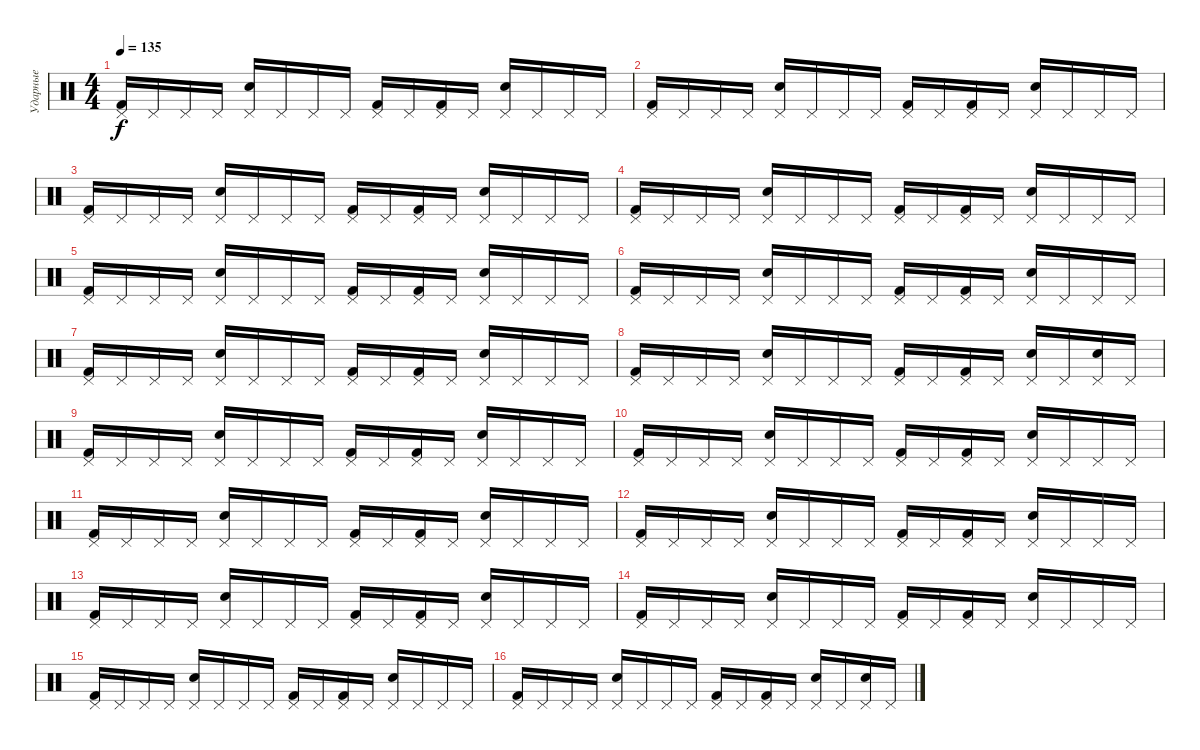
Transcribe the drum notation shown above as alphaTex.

\track ("Ударные" "Ударные") {instrument percussion}
\staff {score}
\articulation defaults
\ts (4 4)
\tempo 135
\clef neutral
\ks c
("Pedal Hi-Hat (hit)" "Kick (hit) 2").16{dy f} "Pedal Hi-Hat (hit)".16 "Pedal Hi-Hat (hit)".16 "Pedal Hi-Hat (hit)".16 ("Pedal Hi-Hat (hit)" "Snare (hit) 2").16 "Pedal Hi-Hat (hit)".16 "Pedal Hi-Hat (hit)".16 "Pedal Hi-Hat (hit)".16 ("Pedal Hi-Hat (hit)" "Kick (hit) 2").16 "Pedal Hi-Hat (hit)".16 ("Pedal Hi-Hat (hit)" "Kick (hit) 2").16 "Pedal Hi-Hat (hit)".16 ("Pedal Hi-Hat (hit)" "Snare (hit) 2").16 "Pedal Hi-Hat (hit)".16 "Pedal Hi-Hat (hit)".16 "Pedal Hi-Hat (hit)".16 |
("Pedal Hi-Hat (hit)" "Kick (hit) 2").16 "Pedal Hi-Hat (hit)".16 "Pedal Hi-Hat (hit)".16 "Pedal Hi-Hat (hit)".16 ("Pedal Hi-Hat (hit)" "Snare (hit) 2").16 "Pedal Hi-Hat (hit)".16 "Pedal Hi-Hat (hit)".16 "Pedal Hi-Hat (hit)".16 ("Pedal Hi-Hat (hit)" "Kick (hit) 2").16 "Pedal Hi-Hat (hit)".16 ("Pedal Hi-Hat (hit)" "Kick (hit) 2").16 "Pedal Hi-Hat (hit)".16 ("Pedal Hi-Hat (hit)" "Snare (hit) 2").16 "Pedal Hi-Hat (hit)".16 "Pedal Hi-Hat (hit)".16 "Pedal Hi-Hat (hit)".16 |
("Pedal Hi-Hat (hit)" "Kick (hit) 2").16 "Pedal Hi-Hat (hit)".16 "Pedal Hi-Hat (hit)".16 "Pedal Hi-Hat (hit)".16 ("Pedal Hi-Hat (hit)" "Snare (hit) 2").16 "Pedal Hi-Hat (hit)".16 "Pedal Hi-Hat (hit)".16 "Pedal Hi-Hat (hit)".16 ("Pedal Hi-Hat (hit)" "Kick (hit) 2").16 "Pedal Hi-Hat (hit)".16 ("Pedal Hi-Hat (hit)" "Kick (hit) 2").16 "Pedal Hi-Hat (hit)".16 ("Pedal Hi-Hat (hit)" "Snare (hit) 2").16 "Pedal Hi-Hat (hit)".16 "Pedal Hi-Hat (hit)".16 "Pedal Hi-Hat (hit)".16 |
("Pedal Hi-Hat (hit)" "Kick (hit) 2").16 "Pedal Hi-Hat (hit)".16 "Pedal Hi-Hat (hit)".16 "Pedal Hi-Hat (hit)".16 ("Pedal Hi-Hat (hit)" "Snare (hit) 2").16 "Pedal Hi-Hat (hit)".16 "Pedal Hi-Hat (hit)".16 "Pedal Hi-Hat (hit)".16 ("Pedal Hi-Hat (hit)" "Kick (hit) 2").16 "Pedal Hi-Hat (hit)".16 ("Pedal Hi-Hat (hit)" "Kick (hit) 2").16 "Pedal Hi-Hat (hit)".16 ("Pedal Hi-Hat (hit)" "Snare (hit) 2").16 "Pedal Hi-Hat (hit)".16 "Pedal Hi-Hat (hit)".16 "Pedal Hi-Hat (hit)".16 |
("Pedal Hi-Hat (hit)" "Kick (hit) 2").16 "Pedal Hi-Hat (hit)".16 "Pedal Hi-Hat (hit)".16 "Pedal Hi-Hat (hit)".16 ("Pedal Hi-Hat (hit)" "Snare (hit) 2").16 "Pedal Hi-Hat (hit)".16 "Pedal Hi-Hat (hit)".16 "Pedal Hi-Hat (hit)".16 ("Pedal Hi-Hat (hit)" "Kick (hit) 2").16 "Pedal Hi-Hat (hit)".16 ("Pedal Hi-Hat (hit)" "Kick (hit) 2").16 "Pedal Hi-Hat (hit)".16 ("Pedal Hi-Hat (hit)" "Snare (hit) 2").16 "Pedal Hi-Hat (hit)".16 "Pedal Hi-Hat (hit)".16 "Pedal Hi-Hat (hit)".16 |
("Pedal Hi-Hat (hit)" "Kick (hit) 2").16 "Pedal Hi-Hat (hit)".16 "Pedal Hi-Hat (hit)".16 "Pedal Hi-Hat (hit)".16 ("Pedal Hi-Hat (hit)" "Snare (hit) 2").16 "Pedal Hi-Hat (hit)".16 "Pedal Hi-Hat (hit)".16 "Pedal Hi-Hat (hit)".16 ("Pedal Hi-Hat (hit)" "Kick (hit) 2").16 "Pedal Hi-Hat (hit)".16 ("Pedal Hi-Hat (hit)" "Kick (hit) 2").16 "Pedal Hi-Hat (hit)".16 ("Pedal Hi-Hat (hit)" "Snare (hit) 2").16 "Pedal Hi-Hat (hit)".16 "Pedal Hi-Hat (hit)".16 "Pedal Hi-Hat (hit)".16 |
("Pedal Hi-Hat (hit)" "Kick (hit) 2").16 "Pedal Hi-Hat (hit)".16 "Pedal Hi-Hat (hit)".16 "Pedal Hi-Hat (hit)".16 ("Pedal Hi-Hat (hit)" "Snare (hit) 2").16 "Pedal Hi-Hat (hit)".16 "Pedal Hi-Hat (hit)".16 "Pedal Hi-Hat (hit)".16 ("Pedal Hi-Hat (hit)" "Kick (hit) 2").16 "Pedal Hi-Hat (hit)".16 ("Pedal Hi-Hat (hit)" "Kick (hit) 2").16 "Pedal Hi-Hat (hit)".16 ("Pedal Hi-Hat (hit)" "Snare (hit) 2").16 "Pedal Hi-Hat (hit)".16 "Pedal Hi-Hat (hit)".16 "Pedal Hi-Hat (hit)".16 |
("Pedal Hi-Hat (hit)" "Kick (hit) 2").16 "Pedal Hi-Hat (hit)".16 "Pedal Hi-Hat (hit)".16 "Pedal Hi-Hat (hit)".16 ("Pedal Hi-Hat (hit)" "Snare (hit) 2").16 "Pedal Hi-Hat (hit)".16 "Pedal Hi-Hat (hit)".16 "Pedal Hi-Hat (hit)".16 ("Pedal Hi-Hat (hit)" "Kick (hit) 2").16 "Pedal Hi-Hat (hit)".16 ("Pedal Hi-Hat (hit)" "Kick (hit) 2").16 "Pedal Hi-Hat (hit)".16 ("Pedal Hi-Hat (hit)" "Snare (hit) 2").16 "Pedal Hi-Hat (hit)".16 ("Pedal Hi-Hat (hit)" "Snare (hit) 2").16 "Pedal Hi-Hat (hit)".16 |
("Pedal Hi-Hat (hit)" "Kick (hit) 2").16 "Pedal Hi-Hat (hit)".16 "Pedal Hi-Hat (hit)".16 "Pedal Hi-Hat (hit)".16 ("Pedal Hi-Hat (hit)" "Snare (hit) 2").16 "Pedal Hi-Hat (hit)".16 "Pedal Hi-Hat (hit)".16 "Pedal Hi-Hat (hit)".16 ("Pedal Hi-Hat (hit)" "Kick (hit) 2").16 "Pedal Hi-Hat (hit)".16 ("Pedal Hi-Hat (hit)" "Kick (hit) 2").16 "Pedal Hi-Hat (hit)".16 ("Pedal Hi-Hat (hit)" "Snare (hit) 2").16 "Pedal Hi-Hat (hit)".16 "Pedal Hi-Hat (hit)".16 "Pedal Hi-Hat (hit)".16 |
("Pedal Hi-Hat (hit)" "Kick (hit) 2").16 "Pedal Hi-Hat (hit)".16 "Pedal Hi-Hat (hit)".16 "Pedal Hi-Hat (hit)".16 ("Pedal Hi-Hat (hit)" "Snare (hit) 2").16 "Pedal Hi-Hat (hit)".16 "Pedal Hi-Hat (hit)".16 "Pedal Hi-Hat (hit)".16 ("Pedal Hi-Hat (hit)" "Kick (hit) 2").16 "Pedal Hi-Hat (hit)".16 ("Pedal Hi-Hat (hit)" "Kick (hit) 2").16 "Pedal Hi-Hat (hit)".16 ("Pedal Hi-Hat (hit)" "Snare (hit) 2").16 "Pedal Hi-Hat (hit)".16 "Pedal Hi-Hat (hit)".16 "Pedal Hi-Hat (hit)".16 |
("Pedal Hi-Hat (hit)" "Kick (hit) 2").16 "Pedal Hi-Hat (hit)".16 "Pedal Hi-Hat (hit)".16 "Pedal Hi-Hat (hit)".16 ("Pedal Hi-Hat (hit)" "Snare (hit) 2").16 "Pedal Hi-Hat (hit)".16 "Pedal Hi-Hat (hit)".16 "Pedal Hi-Hat (hit)".16 ("Pedal Hi-Hat (hit)" "Kick (hit) 2").16 "Pedal Hi-Hat (hit)".16 ("Pedal Hi-Hat (hit)" "Kick (hit) 2").16 "Pedal Hi-Hat (hit)".16 ("Pedal Hi-Hat (hit)" "Snare (hit) 2").16 "Pedal Hi-Hat (hit)".16 "Pedal Hi-Hat (hit)".16 "Pedal Hi-Hat (hit)".16 |
("Pedal Hi-Hat (hit)" "Kick (hit) 2").16 "Pedal Hi-Hat (hit)".16 "Pedal Hi-Hat (hit)".16 "Pedal Hi-Hat (hit)".16 ("Pedal Hi-Hat (hit)" "Snare (hit) 2").16 "Pedal Hi-Hat (hit)".16 "Pedal Hi-Hat (hit)".16 "Pedal Hi-Hat (hit)".16 ("Pedal Hi-Hat (hit)" "Kick (hit) 2").16 "Pedal Hi-Hat (hit)".16 ("Pedal Hi-Hat (hit)" "Kick (hit) 2").16 "Pedal Hi-Hat (hit)".16 ("Pedal Hi-Hat (hit)" "Snare (hit) 2").16 "Pedal Hi-Hat (hit)".16 "Pedal Hi-Hat (hit)".16 "Pedal Hi-Hat (hit)".16 |
("Pedal Hi-Hat (hit)" "Kick (hit) 2").16 "Pedal Hi-Hat (hit)".16 "Pedal Hi-Hat (hit)".16 "Pedal Hi-Hat (hit)".16 ("Pedal Hi-Hat (hit)" "Snare (hit) 2").16 "Pedal Hi-Hat (hit)".16 "Pedal Hi-Hat (hit)".16 "Pedal Hi-Hat (hit)".16 ("Pedal Hi-Hat (hit)" "Kick (hit) 2").16 "Pedal Hi-Hat (hit)".16 ("Pedal Hi-Hat (hit)" "Kick (hit) 2").16 "Pedal Hi-Hat (hit)".16 ("Pedal Hi-Hat (hit)" "Snare (hit) 2").16 "Pedal Hi-Hat (hit)".16 "Pedal Hi-Hat (hit)".16 "Pedal Hi-Hat (hit)".16 |
("Pedal Hi-Hat (hit)" "Kick (hit) 2").16 "Pedal Hi-Hat (hit)".16 "Pedal Hi-Hat (hit)".16 "Pedal Hi-Hat (hit)".16 ("Pedal Hi-Hat (hit)" "Snare (hit) 2").16 "Pedal Hi-Hat (hit)".16 "Pedal Hi-Hat (hit)".16 "Pedal Hi-Hat (hit)".16 ("Pedal Hi-Hat (hit)" "Kick (hit) 2").16 "Pedal Hi-Hat (hit)".16 ("Pedal Hi-Hat (hit)" "Kick (hit) 2").16 "Pedal Hi-Hat (hit)".16 ("Pedal Hi-Hat (hit)" "Snare (hit) 2").16 "Pedal Hi-Hat (hit)".16 "Pedal Hi-Hat (hit)".16 "Pedal Hi-Hat (hit)".16 |
("Pedal Hi-Hat (hit)" "Kick (hit) 2").16 "Pedal Hi-Hat (hit)".16 "Pedal Hi-Hat (hit)".16 "Pedal Hi-Hat (hit)".16 ("Pedal Hi-Hat (hit)" "Snare (hit) 2").16 "Pedal Hi-Hat (hit)".16 "Pedal Hi-Hat (hit)".16 "Pedal Hi-Hat (hit)".16 ("Pedal Hi-Hat (hit)" "Kick (hit) 2").16 "Pedal Hi-Hat (hit)".16 ("Pedal Hi-Hat (hit)" "Kick (hit) 2").16 "Pedal Hi-Hat (hit)".16 ("Pedal Hi-Hat (hit)" "Snare (hit) 2").16 "Pedal Hi-Hat (hit)".16 "Pedal Hi-Hat (hit)".16 "Pedal Hi-Hat (hit)".16 |
("Pedal Hi-Hat (hit)" "Kick (hit) 2").16 "Pedal Hi-Hat (hit)".16 "Pedal Hi-Hat (hit)".16 "Pedal Hi-Hat (hit)".16 ("Pedal Hi-Hat (hit)" "Snare (hit) 2").16 "Pedal Hi-Hat (hit)".16 "Pedal Hi-Hat (hit)".16 "Pedal Hi-Hat (hit)".16 ("Pedal Hi-Hat (hit)" "Kick (hit) 2").16 "Pedal Hi-Hat (hit)".16 ("Pedal Hi-Hat (hit)" "Kick (hit) 2").16 "Pedal Hi-Hat (hit)".16 ("Pedal Hi-Hat (hit)" "Snare (hit) 2").16 "Pedal Hi-Hat (hit)".16 ("Pedal Hi-Hat (hit)" "Snare (hit) 2").16 "Pedal Hi-Hat (hit)".16
